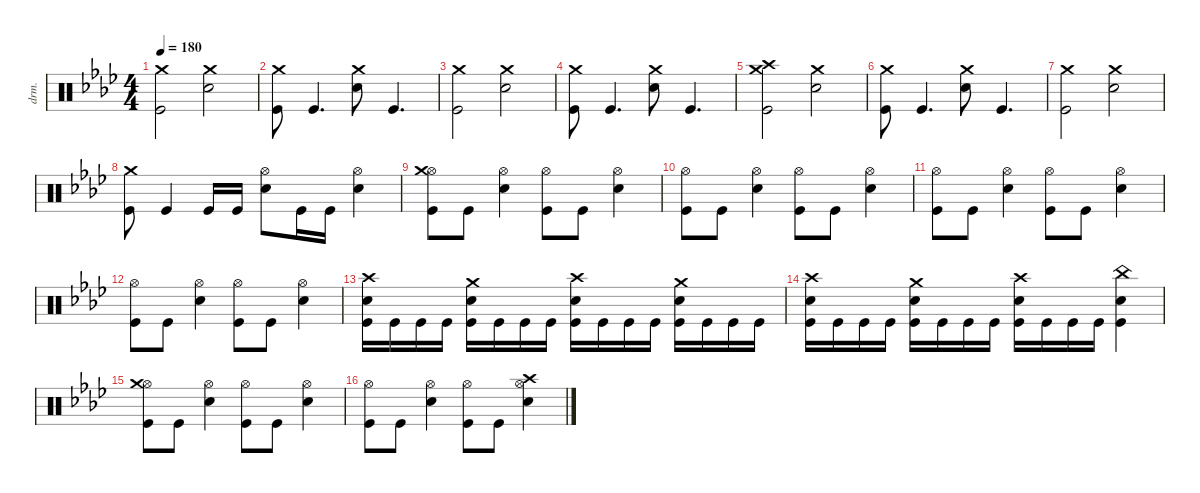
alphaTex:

\defaultSystemsLayout 4
\hideDynamics
\bracketExtendMode nobrackets
\track ("Percussion" "drm.") {instrument percussion}
\staff {score}
\articulation defaults
\ts (4 4)
\beaming (8 2 2 2 2)
\tempo 180
\clef neutral
\ks fminor
("Crash medium (hit)"{acc forcenatural} "Kick (hit)"{acc forcenatural}).2{dy f beam Down} ("Crash medium (hit)"{acc forcenatural} "Snare (hit) 2"{acc forcenatural}).2{beam Down} |
("Crash medium (hit)"{acc forcenatural} "Kick (hit)"{acc forcenatural}).8{beam Down} "Kick (hit)"{acc forcenatural}.4{d beam Up} ("Crash medium (hit)"{acc forcenatural} "Snare (hit) 2"{acc forcenatural}).8{beam Down} "Kick (hit)"{acc forcenatural}.4{d beam Up} |
("Crash medium (hit)"{acc forcenatural} "Kick (hit)"{acc forcenatural}).2{beam Down} ("Crash medium (hit)"{acc forcenatural} "Snare (hit) 2"{acc forcenatural}).2{beam Down} |
("Crash medium (hit)"{acc forcenatural} "Kick (hit)"{acc forcenatural}).8{beam Down} "Kick (hit)"{acc forcenatural}.4{d beam Up} ("Crash medium (hit)"{acc forcenatural} "Snare (hit) 2"{acc forcenatural}).8{beam Down} "Kick (hit)"{acc forcenatural}.4{d beam Up} |
("Crash medium (hit)"{acc forcenatural} "Crash high (hit)"{acc forcenatural} "Kick (hit)"{acc forcenatural}).2{beam Down} ("Crash medium (hit)"{acc forcenatural} "Snare (hit) 2"{acc forcenatural}).2{beam Down} |
("Crash medium (hit)"{acc forcenatural} "Kick (hit)"{acc forcenatural}).8{beam Down} "Kick (hit)"{acc forcenatural}.4{d beam Up} ("Crash medium (hit)"{acc forcenatural} "Snare (hit) 2"{acc forcenatural}).8{beam Down} "Kick (hit)"{acc forcenatural}.4{d beam Up} |
("Crash medium (hit)"{acc forcenatural} "Kick (hit)"{acc forcenatural}).2{beam Down} ("Crash medium (hit)"{acc forcenatural} "Snare (hit) 2"{acc forcenatural}).2{beam Down} |
("Crash medium (hit)"{acc forcenatural} "Kick (hit)"{acc forcenatural}).8{beam Down} "Kick (hit)"{acc forcenatural}.4{beam Up} "Kick (hit)"{acc forcenatural}.16{beam Up} "Kick (hit)"{acc forcenatural}.16{beam Up} ("Hi-Hat (open)"{acc forcenatural} "Snare (hit) 2"{acc forcenatural}).8{beam Down} "Kick (hit)"{acc forcenatural}.16{beam Down} "Kick (hit)"{acc forcenatural}.16{beam Down} ("Hi-Hat (open)"{acc forcenatural} "Snare (hit) 2"{acc forcenatural}).4{beam Down} |
("Hi-Hat (open)"{acc forcenatural} "Crash medium (hit)"{acc forcenatural} "Kick (hit)"{acc forcenatural}).8{beam Down} "Kick (hit)"{acc forcenatural}.8{beam Down} ("Hi-Hat (open)"{acc forcenatural} "Snare (hit) 2"{acc forcenatural}).4{beam Down} ("Hi-Hat (open)"{acc forcenatural} "Kick (hit)"{acc forcenatural}).8{beam Down} "Kick (hit)"{acc forcenatural}.8{beam Down} ("Hi-Hat (open)"{acc forcenatural} "Snare (hit) 2"{acc forcenatural}).4{beam Down} |
("Hi-Hat (open)"{acc forcenatural} "Kick (hit)"{acc forcenatural}).8{beam Down} "Kick (hit)"{acc forcenatural}.8{beam Down} ("Hi-Hat (open)"{acc forcenatural} "Snare (hit) 2"{acc forcenatural}).4{beam Down} ("Hi-Hat (open)"{acc forcenatural} "Kick (hit)"{acc forcenatural}).8{beam Down} "Kick (hit)"{acc forcenatural}.8{beam Down} ("Hi-Hat (open)"{acc forcenatural} "Snare (hit) 2"{acc forcenatural}).4{beam Down} |
("Hi-Hat (open)"{acc forcenatural} "Kick (hit)"{acc forcenatural}).8{beam Down} "Kick (hit)"{acc forcenatural}.8{beam Down} ("Hi-Hat (open)"{acc forcenatural} "Snare (hit) 2"{acc forcenatural}).4{beam Down} ("Hi-Hat (open)"{acc forcenatural} "Kick (hit)"{acc forcenatural}).8{beam Down} "Kick (hit)"{acc forcenatural}.8{beam Down} ("Hi-Hat (open)"{acc forcenatural} "Snare (hit) 2"{acc forcenatural}).4{beam Down} |
("Hi-Hat (open)"{acc forcenatural} "Kick (hit)"{acc forcenatural}).8{beam Down} "Kick (hit)"{acc forcenatural}.8{beam Down} ("Hi-Hat (open)"{acc forcenatural} "Snare (hit) 2"{acc forcenatural}).4{beam Down} ("Hi-Hat (open)"{acc forcenatural} "Kick (hit)"{acc forcenatural}).8{beam Down} "Kick (hit)"{acc forcenatural}.8{beam Down} ("Hi-Hat (open)"{acc forcenatural} "Snare (hit) 2"{acc forcenatural}).4{beam Down} |
("Crash high (hit)"{acc forcenatural} "Snare (hit) 2"{acc forcenatural} "Kick (hit)"{acc forcenatural}).16{beam Down} "Kick (hit)"{acc forcenatural}.16{beam Down} "Kick (hit)"{acc forcenatural}.16{beam Down} "Kick (hit)"{acc forcenatural}.16{beam Down} ("Crash medium (hit)"{acc forcenatural} "Snare (hit) 2"{acc forcenatural} "Kick (hit)"{acc forcenatural}).16{beam Down} "Kick (hit)"{acc forcenatural}.16{beam Down} "Kick (hit)"{acc forcenatural}.16{beam Down} "Kick (hit)"{acc forcenatural}.16{beam Down} ("Crash high (hit)"{acc forcenatural} "Snare (hit) 2"{acc forcenatural} "Kick (hit)"{acc forcenatural}).16{beam Down} "Kick (hit)"{acc forcenatural}.16{beam Down} "Kick (hit)"{acc forcenatural}.16{beam Down} "Kick (hit)"{acc forcenatural}.16{beam Down} ("Crash medium (hit)"{acc forcenatural} "Snare (hit) 2"{acc forcenatural} "Kick (hit)"{acc forcenatural}).16{beam Down} "Kick (hit)"{acc forcenatural}.16{beam Down} "Kick (hit)"{acc forcenatural}.16{beam Down} "Kick (hit)"{acc forcenatural}.16{beam Down} |
("Crash high (hit)"{acc forcenatural} "Snare (hit) 2"{acc forcenatural} "Kick (hit)"{acc forcenatural}).16{beam Down} "Kick (hit)"{acc forcenatural}.16{beam Down} "Kick (hit)"{acc forcenatural}.16{beam Down} "Kick (hit)"{acc forcenatural}.16{beam Down} ("Crash medium (hit)"{acc forcenatural} "Snare (hit) 2"{acc forcenatural} "Kick (hit)"{acc forcenatural}).16{beam Down} "Kick (hit)"{acc forcenatural}.16{beam Down} "Kick (hit)"{acc forcenatural}.16{beam Down} "Kick (hit)"{acc forcenatural}.16{beam Down} ("Crash high (hit)"{acc forcenatural} "Snare (hit) 2"{acc forcenatural} "Kick (hit)"{acc forcenatural}).16{beam Down} "Kick (hit)"{acc forcenatural}.16{beam Down} "Kick (hit)"{acc forcenatural}.16{beam Down} "Kick (hit)"{acc forcenatural}.16{beam Down} ("China (hit)"{acc forcenatural} "Snare (hit) 2"{acc forcenatural} "Kick (hit)"{acc forcenatural}).4{beam Down} |
("Hi-Hat (open)"{acc forcenatural} "Crash medium (hit)"{acc forcenatural} "Kick (hit)"{acc forcenatural}).8{beam Down} "Kick (hit)"{acc forcenatural}.8{beam Down} ("Hi-Hat (open)"{acc forcenatural} "Snare (hit) 2"{acc forcenatural}).4{beam Down} ("Hi-Hat (open)"{acc forcenatural} "Kick (hit)"{acc forcenatural}).8{beam Down} "Kick (hit)"{acc forcenatural}.8{beam Down} ("Hi-Hat (open)"{acc forcenatural} "Snare (hit) 2"{acc forcenatural}).4{beam Down} |
("Hi-Hat (open)"{acc forcenatural} "Kick (hit)"{acc forcenatural}).8{beam Down} "Kick (hit)"{acc forcenatural}.8{beam Down} ("Hi-Hat (open)"{acc forcenatural} "Snare (hit) 2"{acc forcenatural}).4{beam Down} ("Hi-Hat (open)"{acc forcenatural} "Kick (hit)"{acc forcenatural}).8{beam Down} "Kick (hit)"{acc forcenatural}.8{beam Down} ("Hi-Hat (open)"{acc forcenatural} "Crash high (hit)"{acc forcenatural} "Snare (hit) 2"{acc forcenatural}).4{beam Down}
